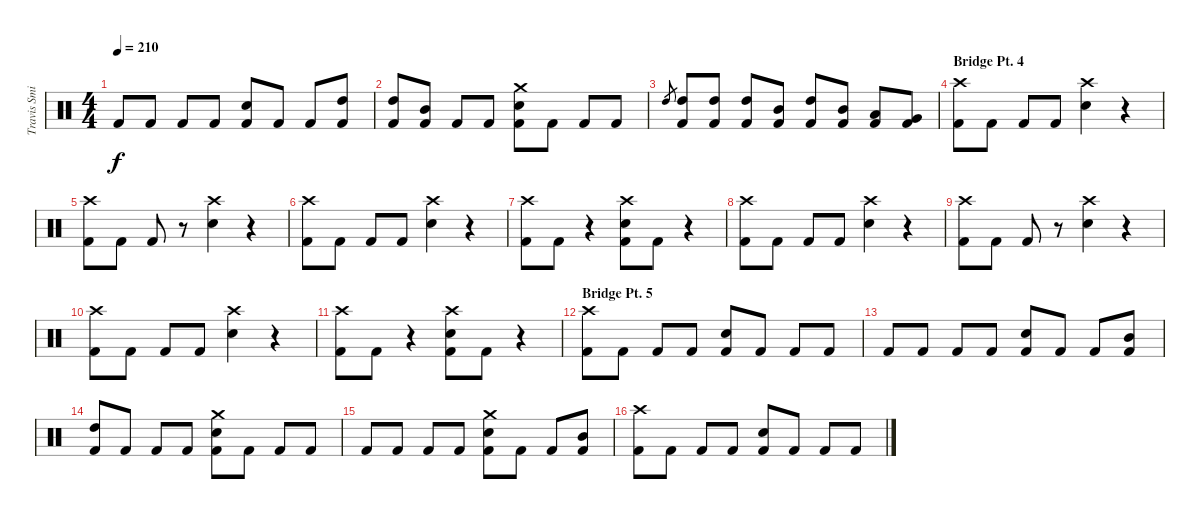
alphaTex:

\track ("Travis Smith" "Travis Smi") {instrument percussion}
\staff {score}
\articulation defaults
\ts (4 4)
\tempo 210
\clef neutral
\ks c "Kick (hit) 2".8{dy f} "Kick (hit) 2".8 "Kick (hit) 2".8 "Kick (hit) 2".8
("Snare (hit) 2" "Kick (hit) 2").8 "Kick (hit) 2".8 "Kick (hit) 2".8 ("High Tom (hit)" "Kick (hit) 2").8 |
("High Tom (hit)" "Kick (hit) 2").8 ("Mid Tom (hit)" "Kick (hit) 2").8 "Kick (hit) 2".8 "Kick (hit) 2".8 ("Crash medium (hit)" "Snare (hit) 2" "Kick (hit) 2").8 "Kick (hit) 2".8 "Kick (hit) 2".8 "Kick (hit) 2".8 |
"High Tom (hit)".8{gr} ("High Tom (hit)" "Kick (hit) 2").8 ("High Tom (hit)" "Kick (hit) 2").8 ("High Tom (hit)" "Kick (hit) 2").8 ("Mid Tom (hit)" "Kick (hit) 2").8 ("High Tom (hit)" "Kick (hit) 2").8 ("Mid Tom (hit)" "Kick (hit) 2").8 ("Low Tom (hit)" "Kick (hit) 2").8 ("Very Low Tom (hit)" "Kick (hit) 2").8 |
\section ("" "Bridge Pt. 4")
("Crash high (hit)" "Kick (hit) 2").8 "Kick (hit) 2".8 "Kick (hit) 2".8 "Kick (hit) 2".8 ("Crash high (hit)" "Snare (hit) 2").4 r.4 |
("Crash high (hit)" "Kick (hit) 2").8 "Kick (hit) 2".8 "Kick (hit) 2".8 r.8 ("Crash high (hit)" "Snare (hit) 2").4 r.4 |
("Crash high (hit)" "Kick (hit) 2").8 "Kick (hit) 2".8 "Kick (hit) 2".8 "Kick (hit) 2".8 ("Crash high (hit)" "Snare (hit) 2").4 r.4 |
("Crash high (hit)" "Kick (hit) 2").8 "Kick (hit) 2".8 r.4 ("Crash high (hit)" "Snare (hit) 2" "Kick (hit) 2").8 "Kick (hit) 2".8 r.4 |
("Crash high (hit)" "Kick (hit) 2").8 "Kick (hit) 2".8 "Kick (hit) 2".8 "Kick (hit) 2".8 ("Crash high (hit)" "Snare (hit) 2").4 r.4 |
("Crash high (hit)" "Kick (hit) 2").8 "Kick (hit) 2".8 "Kick (hit) 2".8 r.8 ("Crash high (hit)" "Snare (hit) 2").4 r.4 |
("Crash high (hit)" "Kick (hit) 2").8 "Kick (hit) 2".8 "Kick (hit) 2".8 "Kick (hit) 2".8 ("Crash high (hit)" "Snare (hit) 2").4 r.4 |
("Crash high (hit)" "Kick (hit) 2").8 "Kick (hit) 2".8 r.4 ("Crash high (hit)" "Snare (hit) 2" "Kick (hit) 2").8 "Kick (hit) 2".8 r.4 |
\section ("" "Bridge Pt. 5")
("Crash high (hit)" "Kick (hit) 2").8 "Kick (hit) 2".8 "Kick (hit) 2".8 "Kick (hit) 2".8 ("Snare (hit) 2" "Kick (hit) 2").8 "Kick (hit) 2".8 "Kick (hit) 2".8 "Kick (hit) 2".8 |
"Kick (hit) 2".8 "Kick (hit) 2".8 "Kick (hit) 2".8 "Kick (hit) 2".8 ("Snare (hit) 2" "Kick (hit) 2").8 "Kick (hit) 2".8 "Kick (hit) 2".8 ("Mid Tom (hit)" "Kick (hit) 2").8 |
("High Tom (hit)" "Kick (hit) 2").8 "Kick (hit) 2".8 "Kick (hit) 2".8 "Kick (hit) 2".8 ("Crash medium (hit)" "Snare (hit) 2" "Kick (hit) 2").8 "Kick (hit) 2".8 "Kick (hit) 2".8 "Kick (hit) 2".8 |
"Kick (hit) 2".8 "Kick (hit) 2".8 "Kick (hit) 2".8 "Kick (hit) 2".8 ("Crash medium (hit)" "Snare (hit) 2" "Kick (hit) 2").8 "Kick (hit) 2".8 "Kick (hit) 2".8 ("Mid Tom (hit)" "Kick (hit) 2").8 |
("Crash high (hit)" "Kick (hit) 2").8 "Kick (hit) 2".8 "Kick (hit) 2".8 "Kick (hit) 2".8 ("Snare (hit) 2" "Kick (hit) 2").8 "Kick (hit) 2".8 "Kick (hit) 2".8 "Kick (hit) 2".8
